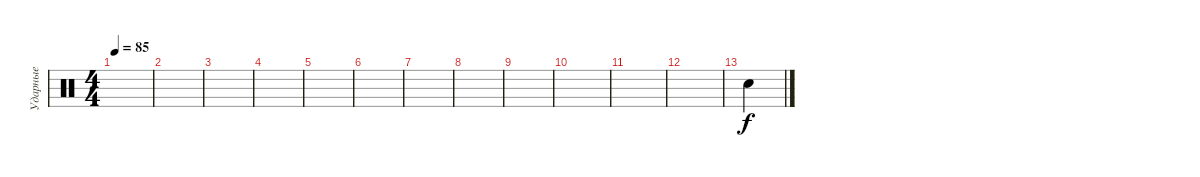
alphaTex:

\track ("Ударные" "Ударные") {instrument percussion}
\staff {score}
\articulation defaults
\ts (4 4)
\tempo 85
\clef neutral
\ks c
|
|
|
|
|
|
|
|
|
|
|
|
"Snare (hit) 2".4
